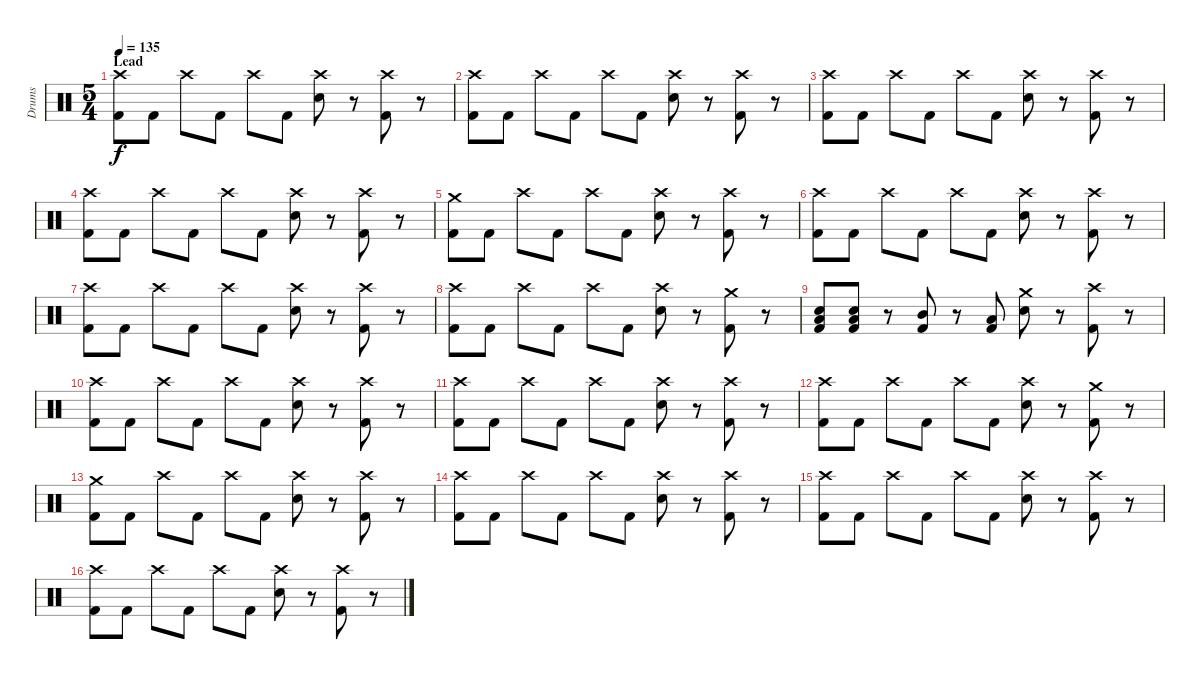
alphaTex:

\track ("Drums" "Drums") {instrument percussion}
\staff {score}
\articulation defaults
\ts (5 4)
\section ("" "Lead")
\tempo 135
\clef neutral
\ks c
("Crash high (hit)" "Kick (hit) 2").8{dy f} "Kick (hit) 2".8 "Crash high (hit)".8 "Kick (hit) 2".8 "Crash high (hit)".8 "Kick (hit) 2".8 ("Crash high (hit)" "Snare (hit) 2").8 r.8 ("Crash high (hit)" "Kick (hit) 2").8 r.8 |
("Crash high (hit)" "Kick (hit) 2").8 "Kick (hit) 2".8 "Crash high (hit)".8 "Kick (hit) 2".8 "Crash high (hit)".8 "Kick (hit) 2".8 ("Crash high (hit)" "Snare (hit) 2").8 r.8 ("Crash high (hit)" "Kick (hit) 2").8 r.8 |
("Crash high (hit)" "Kick (hit) 2").8 "Kick (hit) 2".8 "Crash high (hit)".8 "Kick (hit) 2".8 "Crash high (hit)".8 "Kick (hit) 2".8 ("Crash high (hit)" "Snare (hit) 2").8 r.8 ("Crash high (hit)" "Kick (hit) 2").8 r.8 |
("Crash high (hit)" "Kick (hit) 2").8 "Kick (hit) 2".8 "Crash high (hit)".8 "Kick (hit) 2".8 "Crash high (hit)".8 "Kick (hit) 2".8 ("Crash high (hit)" "Snare (hit) 2").8 r.8 ("Crash high (hit)" "Kick (hit) 2").8 r.8 |
("Crash medium (hit)" "Kick (hit) 2").8 "Kick (hit) 2".8 "Crash high (hit)".8 "Kick (hit) 2".8 "Crash high (hit)".8 "Kick (hit) 2".8 ("Crash high (hit)" "Snare (hit) 2").8 r.8 ("Crash high (hit)" "Kick (hit) 2").8 r.8 |
("Crash high (hit)" "Kick (hit) 2").8 "Kick (hit) 2".8 "Crash high (hit)".8 "Kick (hit) 2".8 "Crash high (hit)".8 "Kick (hit) 2".8 ("Crash high (hit)" "Snare (hit) 2").8 r.8 ("Crash high (hit)" "Kick (hit) 2").8 r.8 |
("Crash high (hit)" "Kick (hit) 2").8 "Kick (hit) 2".8 "Crash high (hit)".8 "Kick (hit) 2".8 "Crash high (hit)".8 "Kick (hit) 2".8 ("Crash high (hit)" "Snare (hit) 2").8 r.8 ("Crash high (hit)" "Kick (hit) 2").8 r.8 |
("Crash high (hit)" "Kick (hit) 2").8 "Kick (hit) 2".8 "Crash high (hit)".8 "Kick (hit) 2".8 "Crash high (hit)".8 "Kick (hit) 2".8 ("Crash high (hit)" "Snare (hit) 2").8 r.8 ("Crash medium (hit)" "Kick (hit) 2").8 r.8 |
("Low Floor Tom (hit)" "Snare (hit) 2" "Kick (hit) 2").8 ("Low Floor Tom (hit)" "Snare (hit) 2" "Kick (hit) 2").8 r.8 ("Mid Tom (hit)" "Kick (hit) 2").8 r.8 ("Low Tom (hit)" "Kick (hit) 2").8 ("Crash medium (hit)" "Snare (hit) 2").8 r.8 ("Crash high (hit)" "Kick (hit) 2").8 r.8 |
("Crash high (hit)" "Kick (hit) 2").8 "Kick (hit) 2".8 "Crash high (hit)".8 "Kick (hit) 2".8 "Crash high (hit)".8 "Kick (hit) 2".8 ("Crash high (hit)" "Snare (hit) 2").8 r.8 ("Crash high (hit)" "Kick (hit) 2").8 r.8 |
("Crash high (hit)" "Kick (hit) 2").8 "Kick (hit) 2".8 "Crash high (hit)".8 "Kick (hit) 2".8 "Crash high (hit)".8 "Kick (hit) 2".8 ("Crash high (hit)" "Snare (hit) 2").8 r.8 ("Crash high (hit)" "Kick (hit) 2").8 r.8 |
("Crash high (hit)" "Kick (hit) 2").8 "Kick (hit) 2".8 "Crash high (hit)".8 "Kick (hit) 2".8 "Crash high (hit)".8 "Kick (hit) 2".8 ("Crash high (hit)" "Snare (hit) 2").8 r.8 ("Crash medium (hit)" "Kick (hit) 2").8 r.8 |
("Crash medium (hit)" "Kick (hit) 2").8 "Kick (hit) 2".8 "Crash high (hit)".8 "Kick (hit) 2".8 "Crash high (hit)".8 "Kick (hit) 2".8 ("Crash high (hit)" "Snare (hit) 2").8 r.8 ("Crash high (hit)" "Kick (hit) 2").8 r.8 |
("Crash high (hit)" "Kick (hit) 2").8 "Kick (hit) 2".8 "Crash high (hit)".8 "Kick (hit) 2".8 "Crash high (hit)".8 "Kick (hit) 2".8 ("Crash high (hit)" "Snare (hit) 2").8 r.8 ("Crash high (hit)" "Kick (hit) 2").8 r.8 |
("Crash high (hit)" "Kick (hit) 2").8 "Kick (hit) 2".8 "Crash high (hit)".8 "Kick (hit) 2".8 "Crash high (hit)".8 "Kick (hit) 2".8 ("Crash high (hit)" "Snare (hit) 2").8 r.8 ("Crash high (hit)" "Kick (hit) 2").8 r.8 |
("Crash high (hit)" "Kick (hit) 2").8 "Kick (hit) 2".8 "Crash high (hit)".8 "Kick (hit) 2".8 "Crash high (hit)".8 "Kick (hit) 2".8 ("Crash high (hit)" "Snare (hit) 2").8 r.8 ("Crash high (hit)" "Kick (hit) 2").8 r.8
